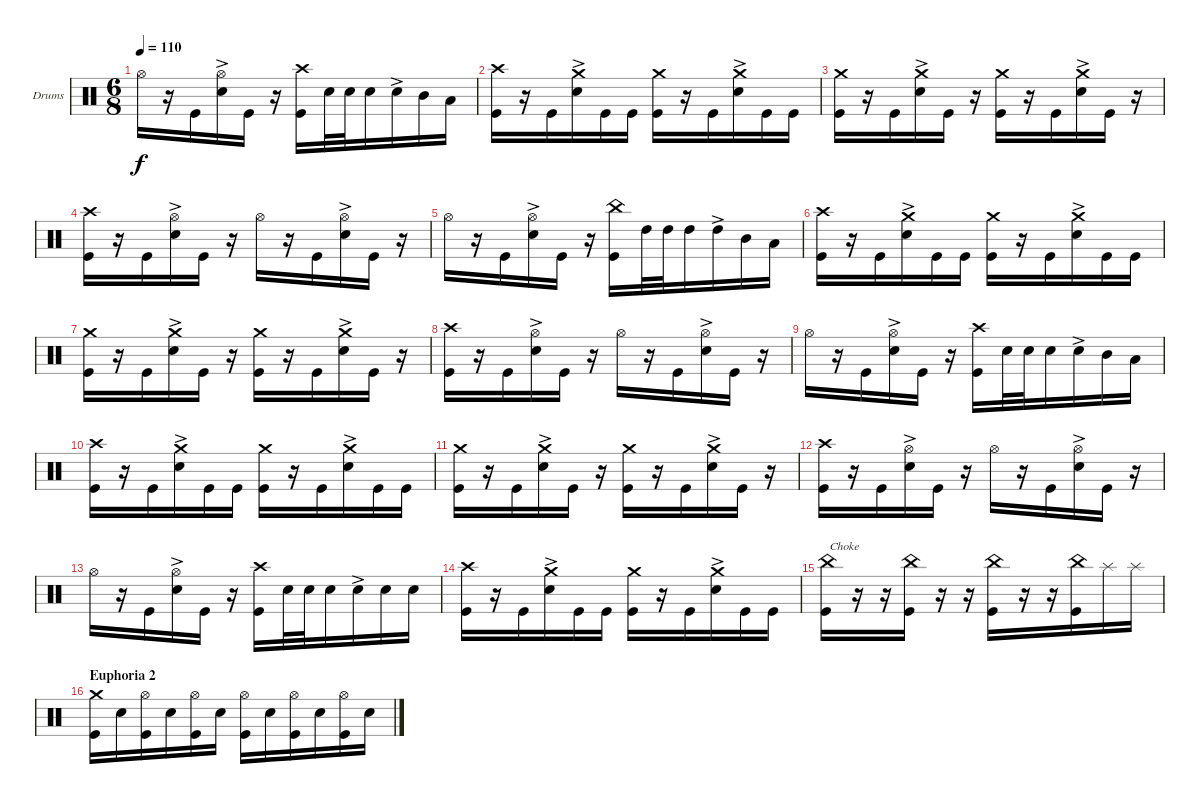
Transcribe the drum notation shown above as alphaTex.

\bracketExtendMode groupsimilarinstruments
\firstSystemTrackNameOrientation horizontal
\otherSystemsTrackNameOrientation horizontal
\track ("Drumkit" "Drums") {instrument percussion}
\staff {score}
\articulation defaults
\ts (6 8)
\tempo 110
\clef neutral
\ks c "Hi-Hat (open)".16{dy f}
r.16 "Kick (hit)".16 ("Snare (hit) 2"{ac} "Hi-Hat (open)").16 "Kick (hit)".16 r.16 ("Kick (hit)" "Crash high (hit)").16 "Snare (hit) 2".32 "Snare (hit) 2".32 "Snare (hit) 2".16 "Snare (hit) 2"{ac}.16 "Mid Tom (hit)".16 "Low Tom (hit)".16 |
("Kick (hit)" "Crash high (hit)").16 r.16 "Kick (hit)".16 ("Snare (hit) 2"{ac} "Crash medium (hit)").16 "Kick (hit)".16 "Kick (hit)".16 ("Kick (hit)" "Crash medium (hit)").16 r.16 "Kick (hit)".16 ("Snare (hit) 2"{ac} "Crash medium (hit)").16 "Kick (hit)".16 "Kick (hit)".16 |
("Kick (hit)" "Crash medium (hit)").16 r.16 "Kick (hit)".16 ("Snare (hit) 2"{ac} "Crash medium (hit)").16 "Kick (hit)".16 r.16 ("Kick (hit)" "Crash medium (hit)").16 r.16 "Kick (hit)".16 ("Snare (hit) 2"{ac} "Crash medium (hit)").16 "Kick (hit)".16 r.16 |
("Kick (hit)" "Crash high (hit)").16 r.16 "Kick (hit)".16 ("Snare (hit) 2"{ac} "Hi-Hat (open)").16 "Kick (hit)".16 r.16 "Hi-Hat (open)".16 r.16 "Kick (hit)".16 ("Snare (hit) 2"{ac} "Hi-Hat (open)").16 "Kick (hit)".16 r.16 |
"Hi-Hat (open)".16 r.16 "Kick (hit)".16 ("Snare (hit) 2"{ac} "Hi-Hat (open)").16 "Kick (hit)".16 r.16 ("Kick (hit)" "China (hit)").16 "High Tom (hit)".32 "High Tom (hit)".32 "High Tom (hit)".16 "High Tom (hit)"{ac}.16 "Mid Tom (hit)".16 "Low Tom (hit)".16 |
("Kick (hit)" "Crash high (hit)").16 r.16 "Kick (hit)".16 ("Snare (hit) 2"{ac} "Crash medium (hit)").16 "Kick (hit)".16 "Kick (hit)".16 ("Kick (hit)" "Crash medium (hit)").16 r.16 "Kick (hit)".16 ("Snare (hit) 2"{ac} "Crash medium (hit)").16 "Kick (hit)".16 "Kick (hit)".16 |
("Kick (hit)" "Crash medium (hit)").16 r.16 "Kick (hit)".16 ("Snare (hit) 2"{ac} "Crash medium (hit)").16 "Kick (hit)".16 r.16 ("Kick (hit)" "Crash medium (hit)").16 r.16 "Kick (hit)".16 ("Snare (hit) 2"{ac} "Crash medium (hit)").16 "Kick (hit)".16 r.16 |
("Kick (hit)" "Crash high (hit)").16 r.16 "Kick (hit)".16 ("Snare (hit) 2"{ac} "Hi-Hat (open)").16 "Kick (hit)".16 r.16 "Hi-Hat (open)".16 r.16 "Kick (hit)".16 ("Snare (hit) 2"{ac} "Hi-Hat (open)").16 "Kick (hit)".16 r.16 |
"Hi-Hat (open)".16 r.16 "Kick (hit)".16 ("Snare (hit) 2"{ac} "Hi-Hat (open)").16 "Kick (hit)".16 r.16 ("Kick (hit)" "Crash high (hit)").16 "Snare (hit) 2".32 "Snare (hit) 2".32 "Snare (hit) 2".16 "Snare (hit) 2"{ac}.16 "Mid Tom (hit)".16 "Low Tom (hit)".16 |
("Kick (hit)" "Crash high (hit)").16 r.16 "Kick (hit)".16 ("Snare (hit) 2"{ac} "Crash medium (hit)").16 "Kick (hit)".16 "Kick (hit)".16 ("Kick (hit)" "Crash medium (hit)").16 r.16 "Kick (hit)".16 ("Snare (hit) 2"{ac} "Crash medium (hit)").16 "Kick (hit)".16 "Kick (hit)".16 |
("Kick (hit)" "Crash medium (hit)").16 r.16 "Kick (hit)".16 ("Snare (hit) 2"{ac} "Crash medium (hit)").16 "Kick (hit)".16 r.16 ("Kick (hit)" "Crash medium (hit)").16 r.16 "Kick (hit)".16 ("Snare (hit) 2"{ac} "Crash medium (hit)").16 "Kick (hit)".16 r.16 |
("Kick (hit)" "Crash high (hit)").16 r.16 "Kick (hit)".16 ("Snare (hit) 2"{ac} "Hi-Hat (open)").16 "Kick (hit)".16 r.16 "Hi-Hat (open)".16 r.16 "Kick (hit)".16 ("Snare (hit) 2"{ac} "Hi-Hat (open)").16 "Kick (hit)".16 r.16 |
"Hi-Hat (open)".16 r.16 "Kick (hit)".16 ("Snare (hit) 2"{ac} "Hi-Hat (open)").16 "Kick (hit)".16 r.16 ("Kick (hit)" "Crash high (hit)").16 "Snare (hit) 2".32 "Snare (hit) 2".32 "Snare (hit) 2".16 "Snare (hit) 2"{ac}.16 "Snare (hit) 2".16 "Snare (hit) 2".16 |
("Kick (hit)" "Crash high (hit)").16 r.16 "Kick (hit)".16 ("Snare (hit) 2"{ac} "Crash medium (hit)").16 "Kick (hit)".16 "Kick (hit)".16 ("Kick (hit)" "Crash medium (hit)").16 r.16 "Kick (hit)".16 ("Snare (hit) 2"{ac} "Crash medium (hit)").16 "Kick (hit)".16 "Kick (hit)".16 |
("Kick (hit)" "China (hit)").16{txt "Choke"} r.16 r.16 ("Kick (hit)" "China (hit)").16 r.16 r.16 ("Kick (hit)" "China (hit)").16 r.16 r.16 ("Kick (hit)" "China (hit)").16 "Splash (hit)".16 "Splash (hit)".16 |
\section ("" "Euphoria 2")
("Kick (hit)" "Crash medium (hit)").16 "Snare (hit) 2".16 ("Kick (hit)" "Hi-Hat (open)").16 "Snare (hit) 2".16 ("Kick (hit)" "Hi-Hat (open)").16 "Snare (hit) 2".16 ("Kick (hit)" "Hi-Hat (open)").16 "Snare (hit) 2".16 ("Kick (hit)" "Hi-Hat (open)").16 "Snare (hit) 2".16 ("Kick (hit)" "Hi-Hat (open)").16 "Snare (hit) 2".16
